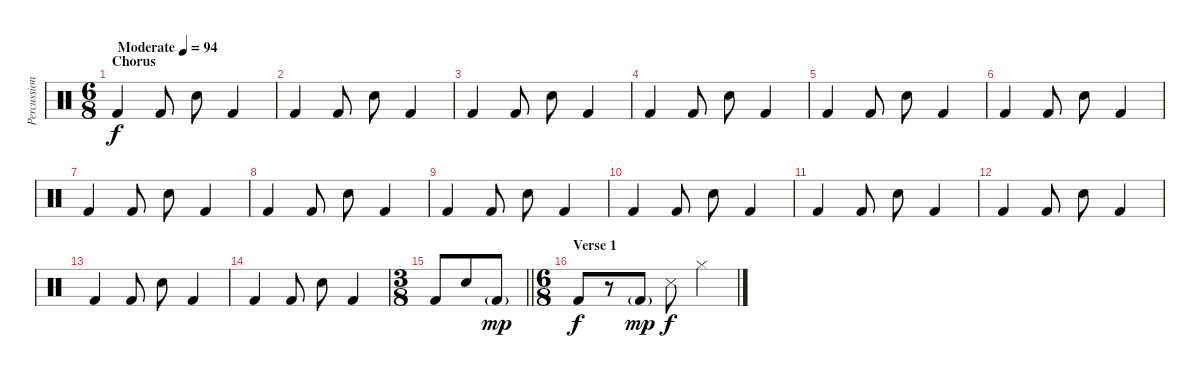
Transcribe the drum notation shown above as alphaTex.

\track ("Percussion" "Percussion") {instrument percussion}
\staff {score}
\articulation defaults
\ts (6 8)
\section ("" "Chorus")
\tempo (94 "Moderate")
\clef neutral
\ks c "Kick (hit) 2".4{dy f} "Kick (hit) 2".8 "Snare (hit) 2".8 "Kick (hit) 2".4
|
"Kick (hit) 2".4 "Kick (hit) 2".8 "Snare (hit) 2".8 "Kick (hit) 2".4 |
"Kick (hit) 2".4 "Kick (hit) 2".8 "Snare (hit) 2".8 "Kick (hit) 2".4 |
"Kick (hit) 2".4 "Kick (hit) 2".8 "Snare (hit) 2".8 "Kick (hit) 2".4 |
"Kick (hit) 2".4 "Kick (hit) 2".8 "Snare (hit) 2".8 "Kick (hit) 2".4 |
"Kick (hit) 2".4 "Kick (hit) 2".8 "Snare (hit) 2".8 "Kick (hit) 2".4 |
"Kick (hit) 2".4 "Kick (hit) 2".8 "Snare (hit) 2".8 "Kick (hit) 2".4 |
"Kick (hit) 2".4 "Kick (hit) 2".8 "Snare (hit) 2".8 "Kick (hit) 2".4 |
"Kick (hit) 2".4 "Kick (hit) 2".8 "Snare (hit) 2".8 "Kick (hit) 2".4 |
"Kick (hit) 2".4 "Kick (hit) 2".8 "Snare (hit) 2".8 "Kick (hit) 2".4 |
"Kick (hit) 2".4 "Kick (hit) 2".8 "Snare (hit) 2".8 "Kick (hit) 2".4 |
"Kick (hit) 2".4 "Kick (hit) 2".8 "Snare (hit) 2".8 "Kick (hit) 2".4 |
"Kick (hit) 2".4 "Kick (hit) 2".8 "Snare (hit) 2".8 "Kick (hit) 2".4 |
"Kick (hit) 2".4 "Kick (hit) 2".8 "Snare (hit) 2".8 "Kick (hit) 2".4 |
\ts (3 8)
\barLineRight lightlight "Kick (hit) 2".8 "Snare (hit) 2".8 "Kick (hit) 2"{g}.8{dy mp}
|
\ts (6 8)
\section ("" "Verse 1")
"Kick (hit) 2".8{dy f} r.8 "Kick (hit) 2"{g}.8{dy mp} "Snare (side stick) 3".8{dy f} "Hi-Hat (closed)".4
